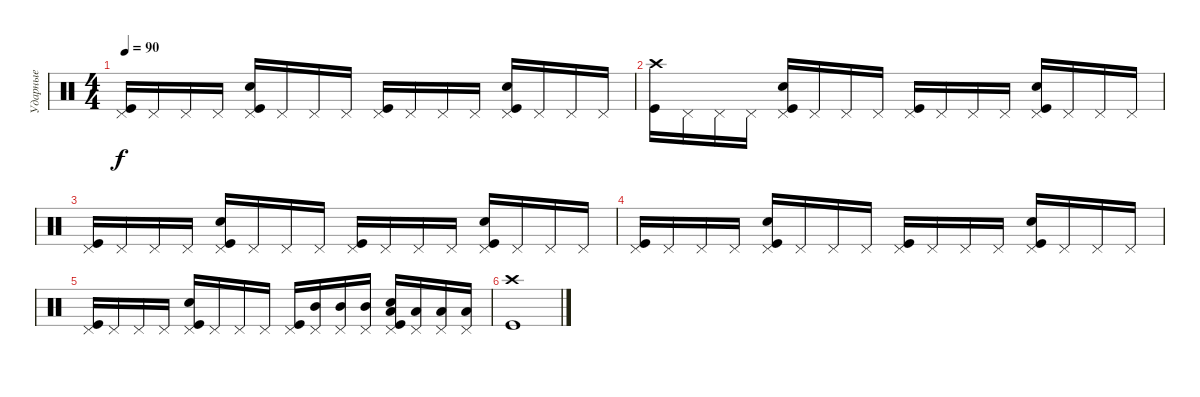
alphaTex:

\track ("Ударные" "Ударные") {instrument percussion}
\staff {score}
\articulation defaults
\ts (4 4)
\tempo 90
\clef neutral
\ks c
("Pedal Hi-Hat (hit)" "Kick (hit)").16{dy f} "Pedal Hi-Hat (hit)".16 "Pedal Hi-Hat (hit)".16 "Pedal Hi-Hat (hit)".16 ("Pedal Hi-Hat (hit)" "Kick (hit)" "Snare (hit) 2").16 "Pedal Hi-Hat (hit)".16 "Pedal Hi-Hat (hit)".16 "Pedal Hi-Hat (hit)".16 ("Pedal Hi-Hat (hit)" "Kick (hit)").16 "Pedal Hi-Hat (hit)".16 "Pedal Hi-Hat (hit)".16 "Pedal Hi-Hat (hit)".16 ("Pedal Hi-Hat (hit)" "Kick (hit)" "Snare (hit) 2").16 "Pedal Hi-Hat (hit)".16 "Pedal Hi-Hat (hit)".16 "Pedal Hi-Hat (hit)".16 |
("Crash high (hit)" "Kick (hit)").16 "Pedal Hi-Hat (hit)".16 "Pedal Hi-Hat (hit)".16 "Pedal Hi-Hat (hit)".16 ("Pedal Hi-Hat (hit)" "Kick (hit)" "Snare (hit) 2").16 "Pedal Hi-Hat (hit)".16 "Pedal Hi-Hat (hit)".16 "Pedal Hi-Hat (hit)".16 ("Pedal Hi-Hat (hit)" "Kick (hit)").16 "Pedal Hi-Hat (hit)".16 "Pedal Hi-Hat (hit)".16 "Pedal Hi-Hat (hit)".16 ("Pedal Hi-Hat (hit)" "Kick (hit)" "Snare (hit) 2").16 "Pedal Hi-Hat (hit)".16 "Pedal Hi-Hat (hit)".16 "Pedal Hi-Hat (hit)".16 |
("Pedal Hi-Hat (hit)" "Kick (hit)").16 "Pedal Hi-Hat (hit)".16 "Pedal Hi-Hat (hit)".16 "Pedal Hi-Hat (hit)".16 ("Pedal Hi-Hat (hit)" "Kick (hit)" "Snare (hit) 2").16 "Pedal Hi-Hat (hit)".16 "Pedal Hi-Hat (hit)".16 "Pedal Hi-Hat (hit)".16 ("Pedal Hi-Hat (hit)" "Kick (hit)").16 "Pedal Hi-Hat (hit)".16 "Pedal Hi-Hat (hit)".16 "Pedal Hi-Hat (hit)".16 ("Pedal Hi-Hat (hit)" "Kick (hit)" "Snare (hit) 2").16 "Pedal Hi-Hat (hit)".16 "Pedal Hi-Hat (hit)".16 "Pedal Hi-Hat (hit)".16 |
("Pedal Hi-Hat (hit)" "Kick (hit)").16 "Pedal Hi-Hat (hit)".16 "Pedal Hi-Hat (hit)".16 "Pedal Hi-Hat (hit)".16 ("Pedal Hi-Hat (hit)" "Kick (hit)" "Snare (hit) 2").16 "Pedal Hi-Hat (hit)".16 "Pedal Hi-Hat (hit)".16 "Pedal Hi-Hat (hit)".16 ("Pedal Hi-Hat (hit)" "Kick (hit)").16 "Pedal Hi-Hat (hit)".16 "Pedal Hi-Hat (hit)".16 "Pedal Hi-Hat (hit)".16 ("Pedal Hi-Hat (hit)" "Kick (hit)" "Snare (hit) 2").16 "Pedal Hi-Hat (hit)".16 "Pedal Hi-Hat (hit)".16 "Pedal Hi-Hat (hit)".16 |
("Pedal Hi-Hat (hit)" "Kick (hit)").16 "Pedal Hi-Hat (hit)".16 "Pedal Hi-Hat (hit)".16 "Pedal Hi-Hat (hit)".16 ("Pedal Hi-Hat (hit)" "Kick (hit)" "Snare (hit) 2").16 "Pedal Hi-Hat (hit)".16 "Pedal Hi-Hat (hit)".16 "Pedal Hi-Hat (hit)".16 ("Pedal Hi-Hat (hit)" "Kick (hit)").16 ("Pedal Hi-Hat (hit)" "Mid Tom (hit)").16 ("Pedal Hi-Hat (hit)" "Mid Tom (hit)").16 ("Pedal Hi-Hat (hit)" "Mid Tom (hit)").16 ("Pedal Hi-Hat (hit)" "Kick (hit)" "Snare (hit) 2" "Low Tom (hit)").16 ("Pedal Hi-Hat (hit)" "Low Tom (hit)").16 ("Pedal Hi-Hat (hit)" "Low Tom (hit)").16 ("Pedal Hi-Hat (hit)" "Low Tom (hit)").16 |
("Kick (hit)" "Crash high (hit)").1
